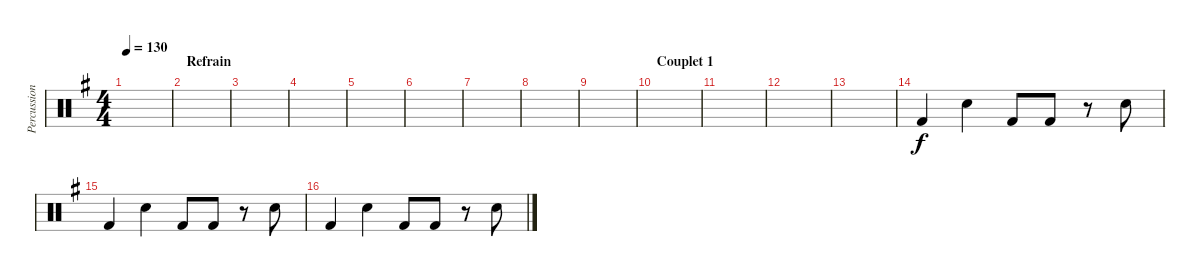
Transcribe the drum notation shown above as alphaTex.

\track ("Percussions" "Percussion") {instrument percussion}
\staff {score}
\articulation defaults
\ts (4 4)
\tempo 130
\clef neutral
\ks eminor
|
\section ("" "Refrain")
|
|
|
|
|
|
|
|
\section ("" "Couplet 1")
|
|
|
|
"Kick (hit) 2".4 "Electric Snare (hit)".4 "Kick (hit) 2".8 "Kick (hit) 2".8 r.8 "Electric Snare (hit)".8 |
"Kick (hit) 2".4 "Electric Snare (hit)".4 "Kick (hit) 2".8 "Kick (hit) 2".8 r.8 "Electric Snare (hit)".8 |
"Kick (hit) 2".4 "Electric Snare (hit)".4 "Kick (hit) 2".8 "Kick (hit) 2".8 r.8 "Electric Snare (hit)".8
